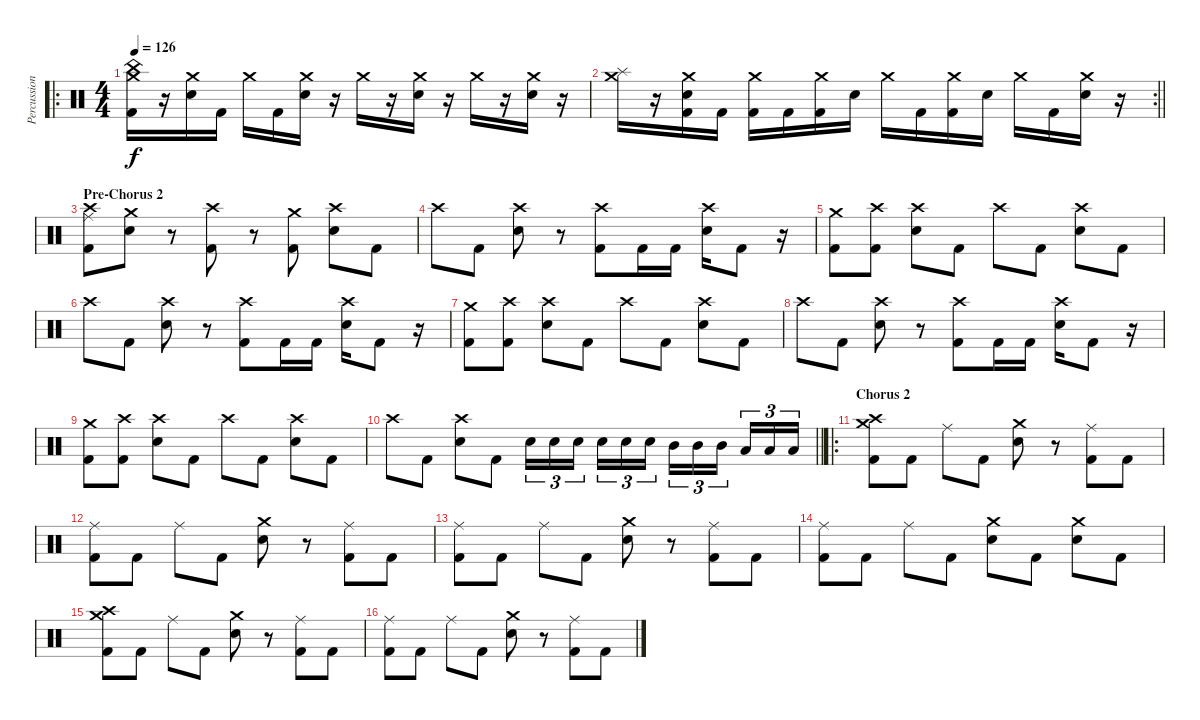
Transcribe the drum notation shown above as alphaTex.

\track ("Percussion" "Percussion") {instrument percussion}
\staff {score}
\articulation defaults
\ro
\ts (4 4)
\tempo 126
\clef neutral
\ks c
("Crash medium (hit)" "China (hit)" "Kick (hit) 2").16{dy f} r.16 ("Crash medium (hit)" "Electric Snare (hit)").16 "Kick (hit) 2".16 "Crash medium (hit)".16 "Kick (hit) 2".16 ("Crash medium (hit)" "Electric Snare (hit)").16 r.16 "Crash medium (hit)".16 r.16 ("Crash medium (hit)" "Electric Snare (hit)").16 r.16 "Crash medium (hit)".16 r.16 ("Crash medium (hit)" "Electric Snare (hit)").16 r.16 |
\rc 2
\barLineRight lightlight
("Crash medium (hit)" "Splash (hit)").16 r.16 ("Crash medium (hit)" "Electric Snare (hit)" "Kick (hit) 2").16 "Kick (hit) 2".16 ("Crash medium (hit)" "Kick (hit) 2").16 "Kick (hit) 2".16 ("Crash medium (hit)" "Kick (hit) 2").16 "Electric Snare (hit)".16 "Crash medium (hit)".16 "Kick (hit) 2".16 ("Crash medium (hit)" "Kick (hit) 2").16 "Electric Snare (hit)".16 "Crash medium (hit)".16 "Kick (hit) 2".16 ("Crash medium (hit)" "Electric Snare (hit)").16 r.16 |
\section ("" "Pre-Chorus 2")
("Ride (middle)" "Crash high (hit)" "Kick (hit) 2").8 ("Crash medium (hit)" "Electric Snare (hit)").8 r.8 ("Crash high (hit)" "Kick (hit) 2").8 r.8 ("Crash medium (hit)" "Kick (hit) 2").8 ("Crash high (hit)" "Electric Snare (hit)").8 "Kick (hit) 2".8 |
"Crash high (hit)".8 "Kick (hit) 2".8 ("Crash high (hit)" "Electric Snare (hit)").8 r.8 ("Crash high (hit)" "Kick (hit) 2").8 "Kick (hit) 2".16 "Kick (hit) 2".16 ("Crash high (hit)" "Electric Snare (hit)").16 "Kick (hit) 2".8 r.16 |
("Crash medium (hit)" "Kick (hit) 2").8 ("Crash high (hit)" "Kick (hit) 2").8 ("Crash high (hit)" "Electric Snare (hit)").8 "Kick (hit) 2".8 "Crash high (hit)".8 "Kick (hit) 2".8 ("Crash high (hit)" "Electric Snare (hit)").8 "Kick (hit) 2".8 |
"Crash high (hit)".8 "Kick (hit) 2".8 ("Crash high (hit)" "Electric Snare (hit)").8 r.8 ("Crash high (hit)" "Kick (hit) 2").8 "Kick (hit) 2".16 "Kick (hit) 2".16 ("Crash high (hit)" "Electric Snare (hit)").16 "Kick (hit) 2".8 r.16 |
("Crash medium (hit)" "Kick (hit) 2").8 ("Crash high (hit)" "Kick (hit) 2").8 ("Crash high (hit)" "Electric Snare (hit)").8 "Kick (hit) 2".8 "Crash high (hit)".8 "Kick (hit) 2".8 ("Crash high (hit)" "Electric Snare (hit)").8 "Kick (hit) 2".8 |
"Crash high (hit)".8 "Kick (hit) 2".8 ("Crash high (hit)" "Electric Snare (hit)").8 r.8 ("Crash high (hit)" "Kick (hit) 2").8 "Kick (hit) 2".16 "Kick (hit) 2".16 ("Crash high (hit)" "Electric Snare (hit)").16 "Kick (hit) 2".8 r.16 |
("Crash medium (hit)" "Kick (hit) 2").8 ("Crash high (hit)" "Kick (hit) 2").8 ("Crash high (hit)" "Electric Snare (hit)").8 "Kick (hit) 2".8 "Crash high (hit)".8 "Kick (hit) 2".8 ("Crash high (hit)" "Electric Snare (hit)").8 "Kick (hit) 2".8 |
\barLineRight lightlight "Crash high (hit)".8 "Kick (hit) 2".8
("Crash high (hit)" "Electric Snare (hit)").8 "Kick (hit) 2".8 "Electric Snare (hit)".16{tu (3 2)} "Electric Snare (hit)".16{tu (3 2)} "Electric Snare (hit)".16{tu (3 2) beam splitsecondary} "Electric Snare (hit)".16{tu (3 2)} "Electric Snare (hit)".16{tu (3 2)} "Electric Snare (hit)".16{tu (3 2)} "Mid Tom (hit)".16{tu (3 2)} "Mid Tom (hit)".16{tu (3 2)} "Mid Tom (hit)".16{tu (3 2) beam splitsecondary} "Low Tom (hit)".16{tu (3 2)} "Low Tom (hit)".16{tu (3 2)} "Low Tom (hit)".16{tu (3 2)} |
\ro
\section ("" "Chorus 2")
("Crash high (hit)" "Crash medium (hit)" "Kick (hit) 2").8 "Kick (hit) 2".8 "Ride (middle)".8 "Kick (hit) 2".8 ("Crash medium (hit)" "Electric Snare (hit)").8 r.8 ("Ride (middle)" "Kick (hit) 2").8 "Kick (hit) 2".8 |
("Ride (middle)" "Kick (hit) 2").8 "Kick (hit) 2".8 "Ride (middle)".8 "Kick (hit) 2".8 ("Crash medium (hit)" "Electric Snare (hit)").8 r.8 ("Ride (middle)" "Kick (hit) 2").8 "Kick (hit) 2".8 |
("Ride (middle)" "Kick (hit) 2").8 "Kick (hit) 2".8 "Ride (middle)".8 "Kick (hit) 2".8 ("Crash medium (hit)" "Electric Snare (hit)").8 r.8 ("Ride (middle)" "Kick (hit) 2").8 "Kick (hit) 2".8 |
("Ride (middle)" "Kick (hit) 2").8 "Kick (hit) 2".8 "Ride (middle)".8 "Kick (hit) 2".8 ("Crash medium (hit)" "Electric Snare (hit)").8 "Kick (hit) 2".8 ("Crash medium (hit)" "Electric Snare (hit)").8 "Kick (hit) 2".8 |
("Crash high (hit)" "Crash medium (hit)" "Kick (hit) 2").8 "Kick (hit) 2".8 "Ride (middle)".8 "Kick (hit) 2".8 ("Crash medium (hit)" "Electric Snare (hit)").8 r.8 ("Ride (middle)" "Kick (hit) 2").8 "Kick (hit) 2".8 |
("Ride (middle)" "Kick (hit) 2").8 "Kick (hit) 2".8 "Ride (middle)".8 "Kick (hit) 2".8 ("Crash medium (hit)" "Electric Snare (hit)").8 r.8 ("Ride (middle)" "Kick (hit) 2").8 "Kick (hit) 2".8
